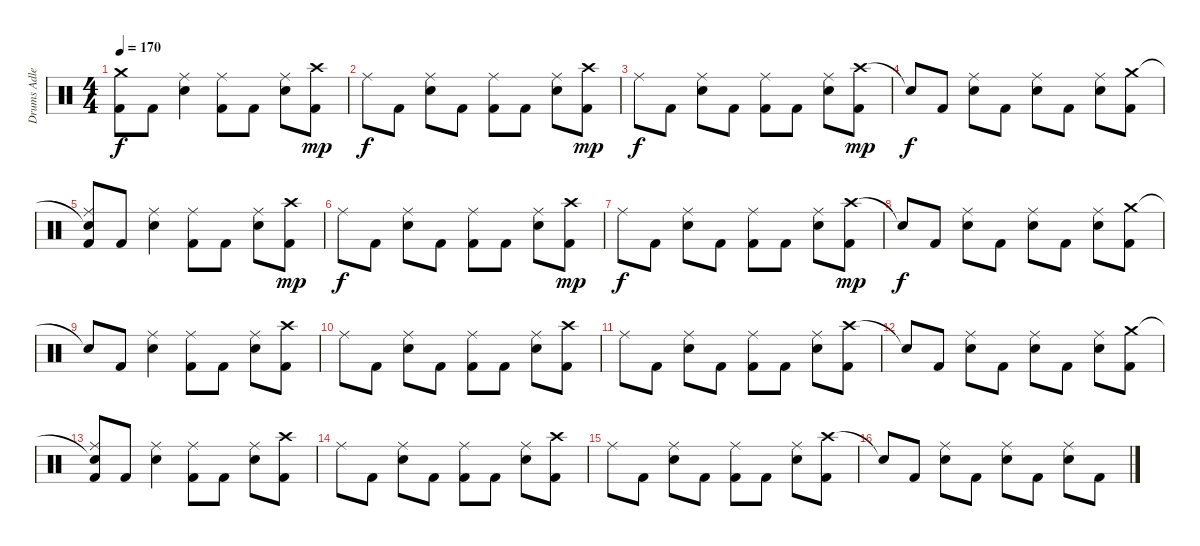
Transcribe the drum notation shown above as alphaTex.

\track ("Drums Adler" "Drums Adle") {instrument percussion}
\staff {score}
\articulation defaults
\ts (4 4)
\tempo 170
\clef neutral
\ks c
("Crash medium (hit)" "Kick (hit) 2").8{dy f} "Kick (hit) 2".8 ("Ride (middle)" "Snare (hit) 2").4 ("Ride (middle)" "Kick (hit) 2").8 "Kick (hit) 2".8 ("Ride (middle)" "Snare (hit) 2").8 ("Crash high (hit)" "Kick (hit) 2").8{dy mp} |
"Ride (middle)".8{dy f} "Kick (hit) 2".8 ("Ride (middle)" "Snare (hit) 2").8 "Kick (hit) 2".8 ("Ride (middle)" "Kick (hit) 2").8 "Kick (hit) 2".8 ("Ride (middle)" "Snare (hit) 2").8 ("Crash high (hit)" "Kick (hit) 2").8{dy mp} |
"Ride (middle)".8{dy f} "Kick (hit) 2".8 ("Ride (middle)" "Snare (hit) 2").8 "Kick (hit) 2".8 ("Ride (middle)" "Kick (hit) 2").8 "Kick (hit) 2".8 ("Ride (middle)" "Snare (hit) 2").8 ("Crash high (hit)" "Kick (hit) 2").8{dy mp} |
"Snare (hit)"{t}.8{dy f} "Kick (hit) 2".8 ("Ride (middle)" "Snare (hit) 2").8 "Kick (hit) 2".8 ("Ride (middle)" "Snare (hit) 2").8 "Kick (hit) 2".8 ("Ride (middle)" "Snare (hit) 2").8 ("Crash medium (hit)" "Kick (hit) 2").8 |
("Snare (hit)"{t} "Ride (middle)" "Kick (hit) 2").8 "Kick (hit) 2".8 ("Ride (middle)" "Snare (hit) 2").4 ("Ride (middle)" "Kick (hit) 2").8 "Kick (hit) 2".8 ("Ride (middle)" "Snare (hit) 2").8 ("Crash high (hit)" "Kick (hit) 2").8{dy mp} |
"Ride (middle)".8{dy f} "Kick (hit) 2".8 ("Ride (middle)" "Snare (hit) 2").8 "Kick (hit) 2".8 ("Ride (middle)" "Kick (hit) 2").8 "Kick (hit) 2".8 ("Ride (middle)" "Snare (hit) 2").8 ("Crash high (hit)" "Kick (hit) 2").8{dy mp} |
"Ride (middle)".8{dy f} "Kick (hit) 2".8 ("Ride (middle)" "Snare (hit) 2").8 "Kick (hit) 2".8 ("Ride (middle)" "Kick (hit) 2").8 "Kick (hit) 2".8 ("Ride (middle)" "Snare (hit) 2").8 ("Crash high (hit)" "Kick (hit) 2").8{dy mp} |
"Snare (hit)"{t}.8{dy f} "Kick (hit) 2".8 ("Ride (middle)" "Snare (hit) 2").8 "Kick (hit) 2".8 ("Ride (middle)" "Snare (hit) 2").8 "Kick (hit) 2".8 ("Ride (middle)" "Snare (hit) 2").8 ("Crash medium (hit)" "Kick (hit) 2").8 |
"Snare (hit)"{t}.8 "Kick (hit) 2".8 ("Ride (middle)" "Snare (hit) 2").4 ("Ride (middle)" "Kick (hit) 2").8 "Kick (hit) 2".8 ("Ride (middle)" "Snare (hit) 2").8 ("Crash high (hit)" "Kick (hit) 2").8 |
"Ride (middle)".8 "Kick (hit) 2".8 ("Ride (middle)" "Snare (hit) 2").8 "Kick (hit) 2".8 ("Ride (middle)" "Kick (hit) 2").8 "Kick (hit) 2".8 ("Ride (middle)" "Snare (hit) 2").8 ("Crash high (hit)" "Kick (hit) 2").8 |
"Ride (middle)".8 "Kick (hit) 2".8 ("Ride (middle)" "Snare (hit) 2").8 "Kick (hit) 2".8 ("Ride (middle)" "Kick (hit) 2").8 "Kick (hit) 2".8 ("Ride (middle)" "Snare (hit) 2").8 ("Crash high (hit)" "Kick (hit) 2").8 |
"Snare (hit)"{t}.8 "Kick (hit) 2".8 ("Ride (middle)" "Snare (hit) 2").8 "Kick (hit) 2".8 ("Ride (middle)" "Snare (hit) 2").8 "Kick (hit) 2".8 ("Ride (middle)" "Snare (hit) 2").8 ("Crash medium (hit)" "Kick (hit) 2").8 |
("Snare (hit)"{t} "Ride (middle)" "Kick (hit) 2").8 "Kick (hit) 2".8 ("Ride (middle)" "Snare (hit) 2").4 ("Ride (middle)" "Kick (hit) 2").8 "Kick (hit) 2".8 ("Ride (middle)" "Snare (hit) 2").8 ("Crash high (hit)" "Kick (hit) 2").8 |
"Ride (middle)".8 "Kick (hit) 2".8 ("Ride (middle)" "Snare (hit) 2").8 "Kick (hit) 2".8 ("Ride (middle)" "Kick (hit) 2").8 "Kick (hit) 2".8 ("Ride (middle)" "Snare (hit) 2").8 ("Crash high (hit)" "Kick (hit) 2").8 |
"Ride (middle)".8 "Kick (hit) 2".8 ("Ride (middle)" "Snare (hit) 2").8 "Kick (hit) 2".8 ("Ride (middle)" "Kick (hit) 2").8 "Kick (hit) 2".8 ("Ride (middle)" "Snare (hit) 2").8 ("Crash high (hit)" "Kick (hit) 2").8 |
"Snare (hit)"{t}.8 "Kick (hit) 2".8 ("Ride (middle)" "Snare (hit) 2").8 "Kick (hit) 2".8 ("Ride (middle)" "Snare (hit) 2").8 "Kick (hit) 2".8 ("Ride (middle)" "Snare (hit) 2").8 "Kick (hit) 2".8
